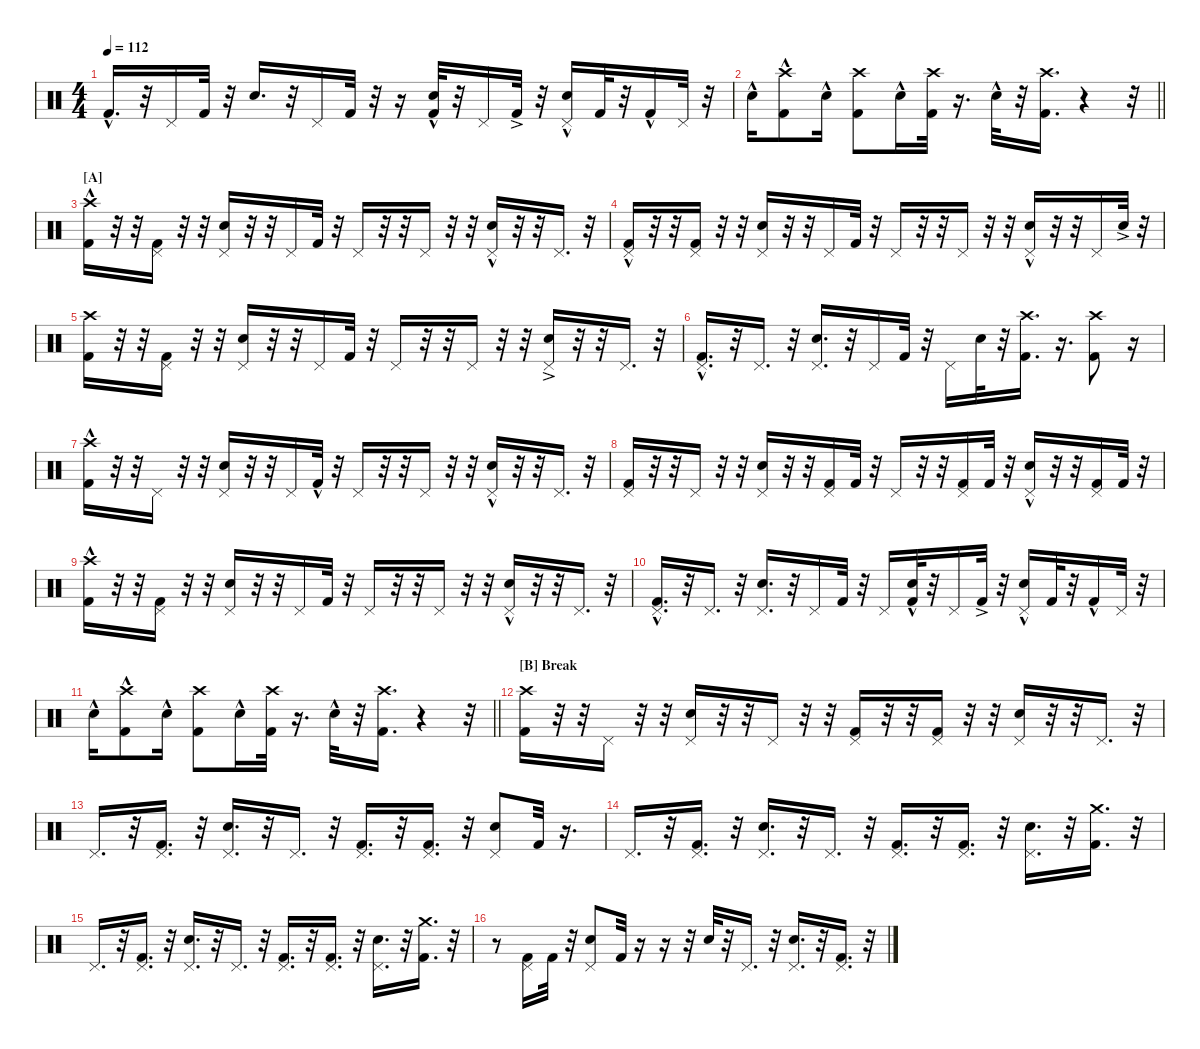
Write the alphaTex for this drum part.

\hideDynamics
\bracketExtendMode nobrackets
\singleTrackTrackNamePolicy hidden
\multiTrackTrackNamePolicy hidden
\firstSystemTrackNameMode fullname
\firstSystemTrackNameOrientation horizontal
\otherSystemsTrackNameOrientation horizontal
\track ("Drumkit" "Drums") {instrument percussion}
\staff {score}
\articulation defaults
\ts (4 4)
\scale
0.463573
\tempo 112
\accidentals auto
\clef neutral
\ottava regular
\simile none
\ks c "Kick (hit) 2"{hac}.16{d dy f beam Up}
r.32{beam Up} "Pedal Hi-Hat (hit)".16{beam Up} "Kick (hit) 2".32{beam Up} r.32{beam Up} "Snare (hit) 2".16{d beam Up} r.32{beam Up} "Pedal Hi-Hat (hit)".16{beam Up} "Kick (hit) 2".32{beam Up} r.32{beam Up} r.16{beam Up} ("Snare (hit) 2" "Kick (hit) 2"{hac}).32{beam Up} r.32{beam Up} "Pedal Hi-Hat (hit)".16{beam Up} "Kick (hit) 2"{ac}.32{beam Up} r.32{beam Up} ("Pedal Hi-Hat (hit)" "Snare (hit) 2"{hac}).16{beam Up} "Kick (hit) 2".32{beam Up} r.32{beam Up} "Kick (hit) 2"{hac}.16{beam Up} "Pedal Hi-Hat (hit)".32{beam Up} r.32{beam Up} |
\scale
0.282051
\barLineRight lightlight "Snare (hit) 2"{hac}.16{beam Down}
("Crash high (hit)" "Kick (hit) 2"{hac}).8{beam Down} "Snare (hit) 2"{hac}.16{beam Down} ("Crash high (hit)" "Kick (hit) 2").8{beam Down} "Snare (hit) 2"{hac}.16{beam Down} ("Crash high (hit)" "Kick (hit) 2").32{beam Down} r.16{d beam Down} "Snare (hit) 2"{hac}.32{beam Down} r.32{beam Down} ("Crash high (hit)" "Kick (hit) 2").16{d beam Down} r.4{beam Down} r.32{beam Down} |
\section ("A" "")
("Crash high (hit)" "Kick (hit) 2"{hac}).16{beam Down} r.32{beam Down} r.32{beam Down} ("Pedal Hi-Hat (hit)" "Kick (hit) 2").16{beam Down} r.32{beam Down} r.32{beam Down} ("Pedal Hi-Hat (hit)" "Snare (hit) 2").16{beam Up} r.32{beam Up} r.32{beam Up} "Pedal Hi-Hat (hit)".16{beam Up} "Kick (hit) 2".32{beam Up} r.32{beam Up} "Pedal Hi-Hat (hit)".16{beam Up} r.32{beam Up} r.32{beam Up} "Pedal Hi-Hat (hit)".16{beam Up} r.32{beam Up} r.32{beam Up} ("Pedal Hi-Hat (hit)" "Snare (hit) 2"{hac}).16{beam Up} r.32{beam Up} r.32{beam Up} "Pedal Hi-Hat (hit)".16{d beam Up} r.32{beam Up} |
("Pedal Hi-Hat (hit)" "Kick (hit) 2"{hac}).16{beam Up} r.32{beam Up} r.32{beam Up} ("Pedal Hi-Hat (hit)" "Kick (hit) 2").16{beam Up} r.32{beam Up} r.32{beam Up} ("Pedal Hi-Hat (hit)" "Snare (hit) 2").16{beam Up} r.32{beam Up} r.32{beam Up} "Pedal Hi-Hat (hit)".16{beam Up} "Kick (hit) 2".32{beam Up} r.32{beam Up} "Pedal Hi-Hat (hit)".16{beam Up} r.32{beam Up} r.32{beam Up} "Pedal Hi-Hat (hit)".16{beam Up} r.32{beam Up} r.32{beam Up} ("Pedal Hi-Hat (hit)" "Snare (hit) 2"{hac}).16{beam Up} r.32{beam Up} r.32{beam Up} "Pedal Hi-Hat (hit)".16{beam Up} "Snare (hit) 2"{ac}.32{beam Up} r.32{beam Up} |
("Crash high (hit)" "Kick (hit) 2").16{beam Down} r.32{beam Down} r.32{beam Down} ("Pedal Hi-Hat (hit)" "Kick (hit) 2").16{beam Down} r.32{beam Down} r.32{beam Down} ("Pedal Hi-Hat (hit)" "Snare (hit) 2").16{beam Up} r.32{beam Up} r.32{beam Up} "Pedal Hi-Hat (hit)".16{beam Up} "Kick (hit) 2".32{beam Up} r.32{beam Up} "Pedal Hi-Hat (hit)".16{beam Up} r.32{beam Up} r.32{beam Up} "Pedal Hi-Hat (hit)".16{beam Up} r.32{beam Up} r.32{beam Up} ("Pedal Hi-Hat (hit)" "Snare (hit) 2"{ac}).16{beam Up} r.32{beam Up} r.32{beam Up} "Pedal Hi-Hat (hit)".16{d beam Up} r.32{beam Up} |
("Pedal Hi-Hat (hit)" "Kick (hit) 2"{hac}).16{d beam Up} r.32{beam Up} "Pedal Hi-Hat (hit)".16{d beam Up} r.32{beam Up} ("Pedal Hi-Hat (hit)" "Snare (hit) 2").16{d beam Up} r.32{beam Up} "Pedal Hi-Hat (hit)".16{beam Up} "Kick (hit) 2".32{beam Up} r.32{beam Up} "Pedal Hi-Hat (hit)".16{beam Down} "Snare (hit) 2".32{beam Down} r.32{beam Down} ("Crash high (hit)" "Kick (hit) 2").16{d beam Down} r.16{d beam Down} ("Crash high (hit)" "Kick (hit) 2").8{beam Down} r.16{beam Down} |
("Crash high (hit)" "Kick (hit) 2"{hac}).16{beam Down} r.32{beam Down} r.32{beam Down} "Pedal Hi-Hat (hit)".16{beam Down} r.32{beam Down} r.32{beam Down} ("Pedal Hi-Hat (hit)" "Snare (hit) 2").16{beam Up} r.32{beam Up} r.32{beam Up} "Pedal Hi-Hat (hit)".16{beam Up} "Kick (hit) 2"{hac}.32{beam Up} r.32{beam Up} "Pedal Hi-Hat (hit)".16{beam Up} r.32{beam Up} r.32{beam Up} "Pedal Hi-Hat (hit)".16{beam Up} r.32{beam Up} r.32{beam Up} ("Pedal Hi-Hat (hit)" "Snare (hit) 2"{hac}).16{beam Up} r.32{beam Up} r.32{beam Up} "Pedal Hi-Hat (hit)".16{d beam Up} r.32{beam Up} |
("Pedal Hi-Hat (hit)" "Kick (hit) 2").16{beam Up} r.32{beam Up} r.32{beam Up} "Pedal Hi-Hat (hit)".16{beam Up} r.32{beam Up} r.32{beam Up} ("Pedal Hi-Hat (hit)" "Snare (hit) 2").16{beam Up} r.32{beam Up} r.32{beam Up} ("Pedal Hi-Hat (hit)" "Kick (hit) 2").16{beam Up} "Kick (hit) 2".32{beam Up} r.32{beam Up} "Pedal Hi-Hat (hit)".16{beam Up} r.32{beam Up} r.32{beam Up} ("Pedal Hi-Hat (hit)" "Kick (hit) 2").16{beam Up} "Kick (hit) 2".32{beam Up} r.32{beam Up} ("Pedal Hi-Hat (hit)" "Snare (hit) 2"{hac}).16{beam Up} r.32{beam Up} r.32{beam Up} ("Pedal Hi-Hat (hit)" "Kick (hit) 2").16{beam Up} "Kick (hit) 2".32{beam Up} r.32{beam Up} |
("Crash high (hit)" "Kick (hit) 2"{hac}).16{beam Down} r.32{beam Down} r.32{beam Down} ("Pedal Hi-Hat (hit)" "Kick (hit) 2").16{beam Down} r.32{beam Down} r.32{beam Down} ("Pedal Hi-Hat (hit)" "Snare (hit) 2").16{beam Up} r.32{beam Up} r.32{beam Up} "Pedal Hi-Hat (hit)".16{beam Up} "Kick (hit) 2".32{beam Up} r.32{beam Up} "Pedal Hi-Hat (hit)".16{beam Up} r.32{beam Up} r.32{beam Up} "Pedal Hi-Hat (hit)".16{beam Up} r.32{beam Up} r.32{beam Up} ("Pedal Hi-Hat (hit)" "Snare (hit) 2"{hac}).16{beam Up} r.32{beam Up} r.32{beam Up} "Pedal Hi-Hat (hit)".16{d beam Up} r.32{beam Up} |
("Pedal Hi-Hat (hit)" "Kick (hit) 2"{hac}).16{d beam Up} r.32{beam Up} "Pedal Hi-Hat (hit)".16{d beam Up} r.32{beam Up} ("Pedal Hi-Hat (hit)" "Snare (hit) 2").16{d beam Up} r.32{beam Up} "Pedal Hi-Hat (hit)".16{beam Up} "Kick (hit) 2".32{beam Up} r.32{beam Up} "Pedal Hi-Hat (hit)".16{beam Up} ("Snare (hit) 2" "Kick (hit) 2"{hac}).32{beam Up} r.32{beam Up} "Pedal Hi-Hat (hit)".16{beam Up} "Kick (hit) 2"{ac}.32{beam Up} r.32{beam Up} ("Pedal Hi-Hat (hit)" "Snare (hit) 2"{hac}).16{beam Up} "Kick (hit) 2".32{beam Up} r.32{beam Up} "Kick (hit) 2"{hac}.16{beam Up} "Pedal Hi-Hat (hit)".32{beam Up} r.32{beam Up} |
\barLineRight lightlight "Snare (hit) 2"{hac}.16{beam Down}
("Crash high (hit)" "Kick (hit) 2"{hac}).8{beam Down} "Snare (hit) 2"{hac}.16{beam Down} ("Crash high (hit)" "Kick (hit) 2").8{beam Down} "Snare (hit) 2"{hac}.16{beam Down} ("Crash high (hit)" "Kick (hit) 2").32{beam Down} r.16{d beam Down} "Snare (hit) 2"{hac}.32{beam Down} r.32{beam Down} ("Crash high (hit)" "Kick (hit) 2").16{d beam Down} r.4{beam Down} r.32{beam Down} |
\section ("B" "Break")
("Crash high (hit)" "Kick (hit) 2").16{beam Down} r.32{beam Down} r.32{beam Down} "Pedal Hi-Hat (hit)".16{beam Down} r.32{beam Down} r.32{beam Down} ("Pedal Hi-Hat (hit)" "Snare (hit) 2").16{beam Up} r.32{beam Up} r.32{beam Up} "Pedal Hi-Hat (hit)".16{beam Up} r.32{beam Up} r.32{beam Up} ("Pedal Hi-Hat (hit)" "Kick (hit) 2").16{beam Up} r.32{beam Up} r.32{beam Up} ("Pedal Hi-Hat (hit)" "Kick (hit) 2").16{beam Up} r.32{beam Up} r.32{beam Up} ("Pedal Hi-Hat (hit)" "Snare (hit) 2").16{beam Up} r.32{beam Up} r.32{beam Up} "Pedal Hi-Hat (hit)".16{d beam Up} r.32{beam Up} |
"Pedal Hi-Hat (hit)".16{d beam Up} r.32{beam Up} ("Pedal Hi-Hat (hit)" "Kick (hit) 2").16{d beam Up} r.32{beam Up} ("Pedal Hi-Hat (hit)" "Snare (hit) 2").16{d beam Up} r.32{beam Up} "Pedal Hi-Hat (hit)".16{d beam Up} r.32{beam Up} ("Pedal Hi-Hat (hit)" "Kick (hit) 2").16{d beam Up} r.32{beam Up} ("Pedal Hi-Hat (hit)" "Kick (hit) 2").16{d beam Up} r.32{beam Up} ("Pedal Hi-Hat (hit)" "Snare (hit) 2").8{beam Up} "Kick (hit) 2".32{beam Up} r.16{d beam Up} |
"Pedal Hi-Hat (hit)".16{d beam Up} r.32{beam Up} ("Pedal Hi-Hat (hit)" "Kick (hit) 2").16{d beam Up} r.32{beam Up} ("Pedal Hi-Hat (hit)" "Snare (hit) 2").16{d beam Up} r.32{beam Up} "Pedal Hi-Hat (hit)".16{d beam Up} r.32{beam Up} ("Pedal Hi-Hat (hit)" "Kick (hit) 2").16{d beam Up} r.32{beam Up} ("Pedal Hi-Hat (hit)" "Kick (hit) 2").16{d beam Up} r.32{beam Up} ("Pedal Hi-Hat (hit)" "Snare (hit) 2").16{d beam Down} r.32{beam Down} ("Kick (hit) 2" "Crash medium (hit)").16{d beam Down} r.32{beam Down} |
"Pedal Hi-Hat (hit)".16{d beam Up} r.32{beam Up} ("Pedal Hi-Hat (hit)" "Kick (hit) 2").16{d beam Up} r.32{beam Up} ("Pedal Hi-Hat (hit)" "Snare (hit) 2").16{d beam Up} r.32{beam Up} "Pedal Hi-Hat (hit)".16{d beam Up} r.32{beam Up} ("Pedal Hi-Hat (hit)" "Kick (hit) 2").16{d beam Up} r.32{beam Up} ("Pedal Hi-Hat (hit)" "Kick (hit) 2").16{d beam Up} r.32{beam Up} ("Pedal Hi-Hat (hit)" "Snare (hit) 2").16{d beam Down} r.32{beam Down} ("Kick (hit) 2" "Crash medium (hit)").16{d beam Down} r.32{beam Down} |
r.8{beam Down} ("Pedal Hi-Hat (hit)" "Kick (hit) 2").16{beam Up} "Kick (hit) 2".32{beam Up} r.32{beam Up} ("Pedal Hi-Hat (hit)" "Snare (hit) 2").8{beam Up} "Kick (hit) 2".32{beam Up} r.16{beam Up} r.16{beam Up} r.32{beam Up} "Snare (hit) 2".32{beam Up} r.32{beam Up} "Pedal Hi-Hat (hit)".16{d beam Up} r.32{beam Up} ("Pedal Hi-Hat (hit)" "Snare (hit) 2").16{d beam Up} r.32{beam Up} ("Pedal Hi-Hat (hit)" "Kick (hit) 2").16{d beam Up} r.32{beam Up}
